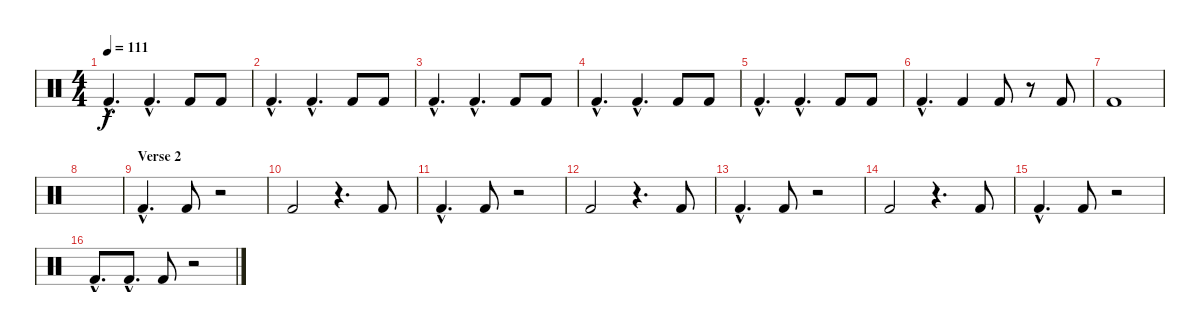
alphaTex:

\track "" {instrument percussion}
\staff {score}
\articulation defaults
\ts (4 4)
\tempo 111
\clef neutral
\ks c "Kick (hit) 2"{hac}.4{d dy f} "Kick (hit) 2"{hac}.4{d} "Kick (hit) 2".8 "Kick (hit) 2".8
|
"Kick (hit) 2"{hac}.4{d} "Kick (hit) 2"{hac}.4{d} "Kick (hit) 2".8 "Kick (hit) 2".8 |
"Kick (hit) 2"{hac}.4{d} "Kick (hit) 2"{hac}.4{d} "Kick (hit) 2".8 "Kick (hit) 2".8 |
"Kick (hit) 2"{hac}.4{d} "Kick (hit) 2"{hac}.4{d} "Kick (hit) 2".8 "Kick (hit) 2".8 |
"Kick (hit) 2"{hac}.4{d} "Kick (hit) 2"{hac}.4{d} "Kick (hit) 2".8 "Kick (hit) 2".8 |
"Kick (hit) 2"{hac}.4{d} "Kick (hit) 2".4 "Kick (hit) 2".8 r.8 "Kick (hit) 2".8 |
"Kick (hit) 2".1 |
|
\section ("" "Verse 2")
"Kick (hit) 2"{hac}.4{d} "Kick (hit) 2".8 r.2 |
"Kick (hit) 2".2 r.4{d} "Kick (hit) 2".8 |
"Kick (hit) 2"{hac}.4{d} "Kick (hit) 2".8 r.2 |
"Kick (hit) 2".2 r.4{d} "Kick (hit) 2".8 |
"Kick (hit) 2"{hac}.4{d} "Kick (hit) 2".8 r.2 |
"Kick (hit) 2".2 r.4{d} "Kick (hit) 2".8 |
"Kick (hit) 2"{hac}.4{d} "Kick (hit) 2".8 r.2 |
"Kick (hit) 2"{hac}.8{d} "Kick (hit) 2"{hac}.8{d} "Kick (hit) 2".8 r.2
